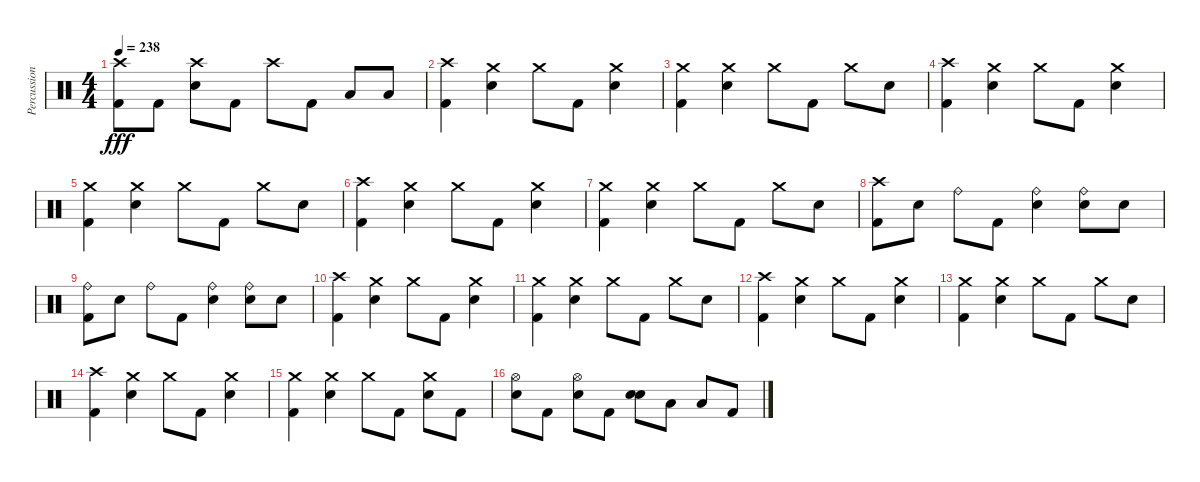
\track ("Percussion" "Percussion") {instrument percussion}
\staff {score}
\articulation defaults
\ts (4 4)
\tempo 238
\clef neutral
\ks c
("Crash high (hit)" "Kick (hit) 2").8{dy fff} "Kick (hit) 2".8 ("Crash high (hit)" "Electric Snare (hit)").8 "Kick (hit) 2".8 "Crash high (hit)".8 "Kick (hit) 2".8 "Low Tom (hit)".8 "Low Tom (hit)".8 |
("Crash high (hit)" "Kick (hit) 2").4 ("Crash medium (hit)" "Electric Snare (hit)").4 "Crash medium (hit)".8 "Kick (hit) 2".8 ("Crash medium (hit)" "Electric Snare (hit)").4 |
("Crash medium (hit)" "Kick (hit) 2").4 ("Crash medium (hit)" "Electric Snare (hit)").4 "Crash medium (hit)".8 "Kick (hit) 2".8 "Crash medium (hit)".8 "Electric Snare (hit)".8 |
("Crash high (hit)" "Kick (hit) 2").4 ("Crash medium (hit)" "Electric Snare (hit)").4 "Crash medium (hit)".8 "Kick (hit) 2".8 ("Crash medium (hit)" "Electric Snare (hit)").4 |
("Crash medium (hit)" "Kick (hit) 2").4 ("Crash medium (hit)" "Electric Snare (hit)").4 "Crash medium (hit)".8 "Kick (hit) 2".8 "Crash medium (hit)".8 "Electric Snare (hit)".8 |
("Crash high (hit)" "Kick (hit) 2").4 ("Crash medium (hit)" "Electric Snare (hit)").4 "Crash medium (hit)".8 "Kick (hit) 2".8 ("Crash medium (hit)" "Electric Snare (hit)").4 |
("Crash medium (hit)" "Kick (hit) 2").4 ("Crash medium (hit)" "Electric Snare (hit)").4 "Crash medium (hit)".8 "Kick (hit) 2".8 "Crash medium (hit)".8 "Electric Snare (hit)".8 |
("Crash high (hit)" "Kick (hit) 2").8 "Electric Snare (hit)".8 "Ride (bell)".8 "Kick (hit) 2".8 ("Ride (bell)" "Electric Snare (hit)").4 ("Ride (bell)" "Electric Snare (hit)").8 "Electric Snare (hit)".8 |
("Ride (bell)" "Kick (hit) 2").8 "Electric Snare (hit)".8 "Ride (bell)".8 "Kick (hit) 2".8 ("Ride (bell)" "Electric Snare (hit)").4 ("Ride (bell)" "Electric Snare (hit)").8 "Electric Snare (hit)".8 |
("Crash high (hit)" "Kick (hit) 2").4 ("Crash medium (hit)" "Electric Snare (hit)").4 "Crash medium (hit)".8 "Kick (hit) 2".8 ("Crash medium (hit)" "Electric Snare (hit)").4 |
("Crash medium (hit)" "Kick (hit) 2").4 ("Crash medium (hit)" "Electric Snare (hit)").4 "Crash medium (hit)".8 "Kick (hit) 2".8 "Crash medium (hit)".8 "Electric Snare (hit)".8 |
("Crash high (hit)" "Kick (hit) 2").4 ("Crash medium (hit)" "Electric Snare (hit)").4 "Crash medium (hit)".8 "Kick (hit) 2".8 ("Crash medium (hit)" "Electric Snare (hit)").4 |
("Crash medium (hit)" "Kick (hit) 2").4 ("Crash medium (hit)" "Electric Snare (hit)").4 "Crash medium (hit)".8 "Kick (hit) 2".8 "Crash medium (hit)".8 "Electric Snare (hit)".8 |
("Crash high (hit)" "Kick (hit) 2").4 ("Crash medium (hit)" "Electric Snare (hit)").4 "Crash medium (hit)".8 "Kick (hit) 2".8 ("Crash medium (hit)" "Electric Snare (hit)").4 |
("Crash medium (hit)" "Kick (hit) 2").4 ("Crash medium (hit)" "Electric Snare (hit)").4 "Crash medium (hit)".8 "Kick (hit) 2".8 ("Crash medium (hit)" "Electric Snare (hit)").8 "Kick (hit) 2".8 |
("Hi-Hat (open)" "Electric Snare (hit)").8 "Kick (hit) 2".8 ("Hi-Hat (open)" "Electric Snare (hit)").8 "Kick (hit) 2".8 ("Electric Snare (hit)" "Electric Snare (hit)").8{bd 480} "Low Tom (hit)".8 "Low Floor Tom (hit)".8 "Kick (hit) 2".8
